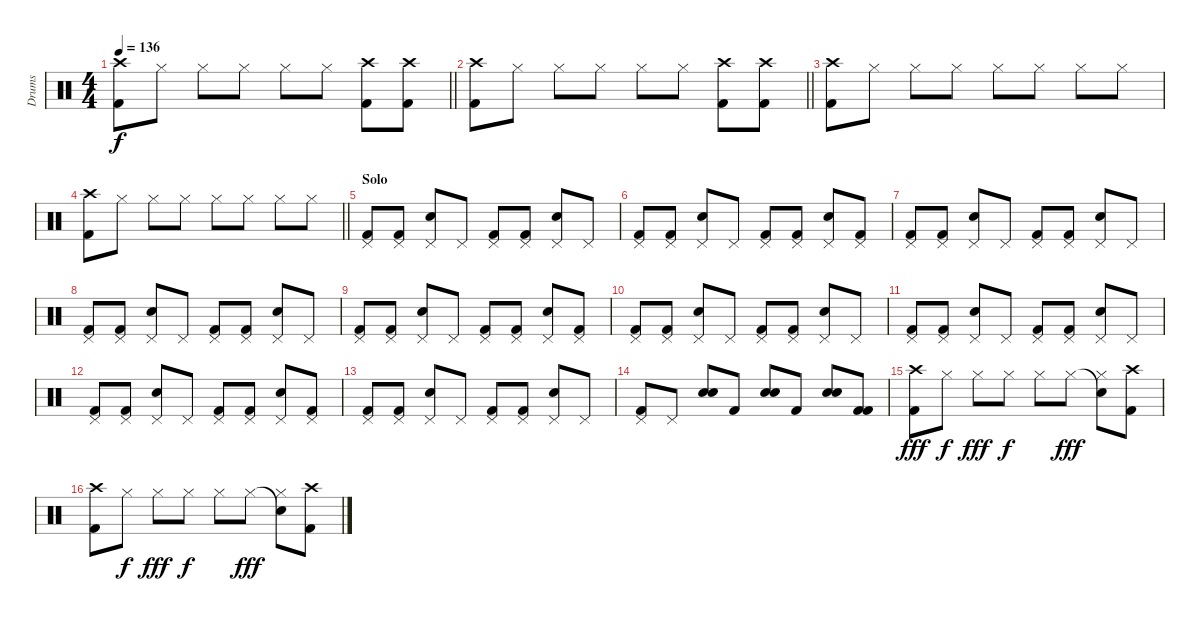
\track ("Drums" "Drums") {instrument percussion}
\staff {score}
\articulation defaults
\ts (4 4)
\tempo 136
\clef neutral
\barLineRight lightlight
\ks c
("Crash high (hit)" "Kick (hit) 2").8{dy f} "Hi-Hat (closed)".8 "Hi-Hat (closed)".8 "Hi-Hat (closed)".8 "Hi-Hat (closed)".8 "Hi-Hat (closed)".8 ("Crash high (hit)" "Kick (hit) 2").8 ("Crash high (hit)" "Kick (hit) 2").8 |
\barLineRight lightlight
("Crash high (hit)" "Kick (hit) 2").8 "Hi-Hat (closed)".8 "Hi-Hat (closed)".8 "Hi-Hat (closed)".8 "Hi-Hat (closed)".8 "Hi-Hat (closed)".8 ("Crash high (hit)" "Kick (hit) 2").8 ("Crash high (hit)" "Kick (hit) 2").8 |
("Crash high (hit)" "Kick (hit) 2").8 "Hi-Hat (closed)".8 "Hi-Hat (closed)".8 "Hi-Hat (closed)".8 "Hi-Hat (closed)".8 "Hi-Hat (closed)".8 "Hi-Hat (closed)".8 "Hi-Hat (closed)".8 |
\barLineRight lightlight
("Crash high (hit)" "Kick (hit) 2").8 "Hi-Hat (closed)".8 "Hi-Hat (closed)".8 "Hi-Hat (closed)".8 "Hi-Hat (closed)".8 "Hi-Hat (closed)".8 "Hi-Hat (closed)".8 "Hi-Hat (closed)".8 |
\section ("" "Solo")
("Pedal Hi-Hat (hit)" "Kick (hit) 2").8 ("Pedal Hi-Hat (hit)" "Kick (hit) 2").8 ("Pedal Hi-Hat (hit)" "Electric Snare (hit)").8 "Pedal Hi-Hat (hit)".8 ("Pedal Hi-Hat (hit)" "Kick (hit) 2").8 ("Pedal Hi-Hat (hit)" "Kick (hit) 2").8 ("Pedal Hi-Hat (hit)" "Electric Snare (hit)").8 "Pedal Hi-Hat (hit)".8 |
("Pedal Hi-Hat (hit)" "Kick (hit) 2").8 ("Pedal Hi-Hat (hit)" "Kick (hit) 2").8 ("Pedal Hi-Hat (hit)" "Electric Snare (hit)").8 "Pedal Hi-Hat (hit)".8 ("Pedal Hi-Hat (hit)" "Kick (hit) 2").8 ("Pedal Hi-Hat (hit)" "Kick (hit) 2").8 ("Pedal Hi-Hat (hit)" "Electric Snare (hit)").8 ("Pedal Hi-Hat (hit)" "Kick (hit) 2").8 |
("Pedal Hi-Hat (hit)" "Kick (hit) 2").8 ("Pedal Hi-Hat (hit)" "Kick (hit) 2").8 ("Pedal Hi-Hat (hit)" "Electric Snare (hit)").8 "Pedal Hi-Hat (hit)".8 ("Pedal Hi-Hat (hit)" "Kick (hit) 2").8 ("Pedal Hi-Hat (hit)" "Kick (hit) 2").8 ("Pedal Hi-Hat (hit)" "Electric Snare (hit)").8 "Pedal Hi-Hat (hit)".8 |
("Pedal Hi-Hat (hit)" "Kick (hit) 2").8 ("Pedal Hi-Hat (hit)" "Kick (hit) 2").8 ("Pedal Hi-Hat (hit)" "Electric Snare (hit)").8 "Pedal Hi-Hat (hit)".8 ("Pedal Hi-Hat (hit)" "Kick (hit) 2").8 ("Pedal Hi-Hat (hit)" "Kick (hit) 2").8 ("Pedal Hi-Hat (hit)" "Electric Snare (hit)").8 "Pedal Hi-Hat (hit)".8 |
("Pedal Hi-Hat (hit)" "Kick (hit) 2").8 ("Pedal Hi-Hat (hit)" "Kick (hit) 2").8 ("Pedal Hi-Hat (hit)" "Electric Snare (hit)").8 "Pedal Hi-Hat (hit)".8 ("Pedal Hi-Hat (hit)" "Kick (hit) 2").8 ("Pedal Hi-Hat (hit)" "Kick (hit) 2").8 ("Pedal Hi-Hat (hit)" "Electric Snare (hit)").8 ("Pedal Hi-Hat (hit)" "Kick (hit) 2").8 |
("Pedal Hi-Hat (hit)" "Kick (hit) 2").8 ("Pedal Hi-Hat (hit)" "Kick (hit) 2").8 ("Pedal Hi-Hat (hit)" "Electric Snare (hit)").8 "Pedal Hi-Hat (hit)".8 ("Pedal Hi-Hat (hit)" "Kick (hit) 2").8 ("Pedal Hi-Hat (hit)" "Kick (hit) 2").8 ("Pedal Hi-Hat (hit)" "Electric Snare (hit)").8 "Pedal Hi-Hat (hit)".8 |
("Pedal Hi-Hat (hit)" "Kick (hit) 2").8 ("Pedal Hi-Hat (hit)" "Kick (hit) 2").8 ("Pedal Hi-Hat (hit)" "Electric Snare (hit)").8 "Pedal Hi-Hat (hit)".8 ("Pedal Hi-Hat (hit)" "Kick (hit) 2").8 ("Pedal Hi-Hat (hit)" "Kick (hit) 2").8 ("Pedal Hi-Hat (hit)" "Electric Snare (hit)").8 "Pedal Hi-Hat (hit)".8 |
("Pedal Hi-Hat (hit)" "Kick (hit) 2").8 ("Pedal Hi-Hat (hit)" "Kick (hit) 2").8 ("Pedal Hi-Hat (hit)" "Electric Snare (hit)").8 "Pedal Hi-Hat (hit)".8 ("Pedal Hi-Hat (hit)" "Kick (hit) 2").8 ("Pedal Hi-Hat (hit)" "Kick (hit) 2").8 ("Pedal Hi-Hat (hit)" "Electric Snare (hit)").8 ("Pedal Hi-Hat (hit)" "Kick (hit) 2").8 |
("Pedal Hi-Hat (hit)" "Kick (hit) 2").8 ("Pedal Hi-Hat (hit)" "Kick (hit) 2").8 ("Pedal Hi-Hat (hit)" "Electric Snare (hit)").8 "Pedal Hi-Hat (hit)".8 ("Pedal Hi-Hat (hit)" "Kick (hit) 2").8 ("Pedal Hi-Hat (hit)" "Kick (hit) 2").8 ("Pedal Hi-Hat (hit)" "Electric Snare (hit)").8 "Pedal Hi-Hat (hit)".8 |
("Pedal Hi-Hat (hit)" "Kick (hit) 2").8 "Pedal Hi-Hat (hit)".8 ("Electric Snare (hit)" "Electric Snare (hit)").8 "Kick (hit) 2".8 ("Electric Snare (hit)" "Electric Snare (hit)").8 "Kick (hit) 2".8 ("Electric Snare (hit)" "Electric Snare (hit)").8 ("Kick (hit) 2" "Kick (hit) 2").8 |
("Crash high (hit)" "Kick (hit) 2").8{dy fff} "Hi-Hat (closed)".8{dy f} "Hi-Hat (closed)".8{dy fff} "Hi-Hat (closed)".8{dy f} "Hi-Hat (closed)".8 "Hi-Hat (closed)".8{dy fff} ("Snare (hit)"{t} "Hi-Hat (closed)").8 ("Crash high (hit)" "Kick (hit) 2").8 |
("Crash high (hit)" "Kick (hit) 2").8 "Hi-Hat (closed)".8{dy f} "Hi-Hat (closed)".8{dy fff} "Hi-Hat (closed)".8{dy f} "Hi-Hat (closed)".8 "Hi-Hat (closed)".8{dy fff} ("Snare (hit)"{t} "Hi-Hat (closed)").8 ("Crash high (hit)" "Kick (hit) 2").8
